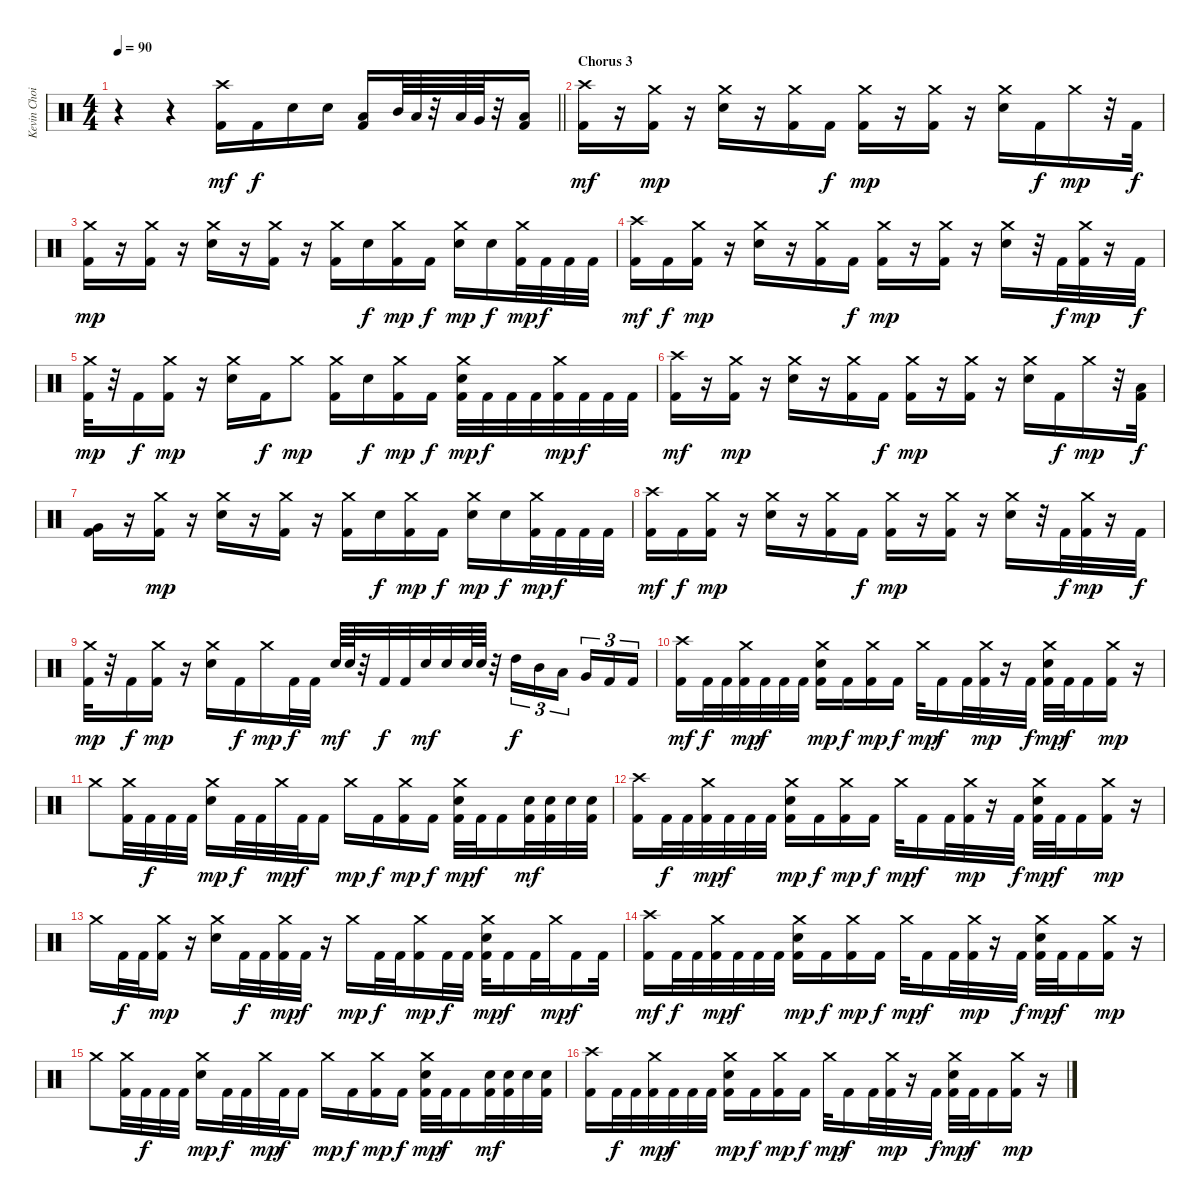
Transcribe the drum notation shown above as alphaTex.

\track ("Kevin Choiral" "Kevin Choi") {instrument percussion}
\staff
\articulation defaults
\ts (4 4)
\tempo 90
\clef neutral
\barLineRight lightlight
\ks c
r.4{dy f} r.4 ("Crash high (hit)" "Kick (hit) 2").16{dy mf} "Kick (hit) 2".16{dy f} "Electric Snare (hit)".16 "Electric Snare (hit)".16 ("Low Tom (hit)" "Kick (hit) 2").16 "Mid Tom (hit)".64 "Low Tom (hit)".64 r.32 "Low Tom (hit)".64 "Very Low Tom (hit)".64 r.32 ("Low Floor Tom (hit)" "Kick (hit) 2").16 |
\section ("" "Chorus 3")
("Crash high (hit)" "Kick (hit) 2").16{dy mf} r.16 ("Crash medium (hit)" "Kick (hit) 2").16{dy mp} r.16 ("Crash medium (hit)" "Electric Snare (hit)").16 r.16 ("Crash medium (hit)" "Kick (hit) 2").16 "Kick (hit) 2".16{dy f} ("Crash medium (hit)" "Kick (hit) 2").16{dy mp} r.16 ("Crash medium (hit)" "Kick (hit) 2").16 r.16 ("Crash medium (hit)" "Electric Snare (hit)").16 "Kick (hit) 2".16{dy f} "Crash medium (hit)".16{dy mp} r.32 "Kick (hit) 2".32{dy f} |
("Crash medium (hit)" "Kick (hit) 2").16{dy mp} r.16 ("Crash medium (hit)" "Kick (hit) 2").16 r.16 ("Crash medium (hit)" "Electric Snare (hit)").16 r.16 ("Crash medium (hit)" "Kick (hit) 2").16 r.16 ("Crash medium (hit)" "Kick (hit) 2").16 "Electric Snare (hit)".16{dy f} ("Crash medium (hit)" "Kick (hit) 2").16{dy mp} "Kick (hit) 2".16{dy f} ("Crash medium (hit)" "Electric Snare (hit)").16{dy mp} "Electric Snare (hit)".16{dy f} ("Crash medium (hit)" "Kick (hit) 2").32{dy mp} "Kick (hit) 2".32{dy f} "Kick (hit) 2".32 "Kick (hit) 2".32 |
("Crash high (hit)" "Kick (hit) 2").16{dy mf} "Kick (hit) 2".16{dy f} ("Crash medium (hit)" "Kick (hit) 2").16{dy mp} r.16 ("Crash medium (hit)" "Electric Snare (hit)").16 r.16 ("Crash medium (hit)" "Kick (hit) 2").16 "Kick (hit) 2".16{dy f} ("Crash medium (hit)" "Kick (hit) 2").16{dy mp} r.16 ("Crash medium (hit)" "Kick (hit) 2").16 r.16 ("Crash medium (hit)" "Electric Snare (hit)").16 r.32 "Kick (hit) 2".32{dy f} ("Crash medium (hit)" "Kick (hit) 2").32{dy mp} r.16 "Kick (hit) 2".32{dy f} |
("Crash medium (hit)" "Kick (hit) 2").32{dy mp} r.32 "Kick (hit) 2".16{dy f} ("Crash medium (hit)" "Kick (hit) 2").16{dy mp} r.16 ("Crash medium (hit)" "Electric Snare (hit)").16 "Kick (hit) 2".16{dy f} "Crash medium (hit)".8{dy mp} ("Crash medium (hit)" "Kick (hit) 2").16 "Electric Snare (hit)".16{dy f} ("Crash medium (hit)" "Kick (hit) 2").16{dy mp} "Kick (hit) 2".16{dy f} ("Crash medium (hit)" "Electric Snare (hit)" "Kick (hit) 2").32{dy mp} "Kick (hit) 2".32{dy f} "Kick (hit) 2".32 "Kick (hit) 2".32 ("Crash medium (hit)" "Kick (hit) 2").32{dy mp} "Kick (hit) 2".32{dy f} "Kick (hit) 2".32 "Kick (hit) 2".32 |
("Crash high (hit)" "Kick (hit) 2").16{dy mf} r.16 ("Crash medium (hit)" "Kick (hit) 2").16{dy mp} r.16 ("Crash medium (hit)" "Electric Snare (hit)").16 r.16 ("Crash medium (hit)" "Kick (hit) 2").16 "Kick (hit) 2".16{dy f} ("Crash medium (hit)" "Kick (hit) 2").16{dy mp} r.16 ("Crash medium (hit)" "Kick (hit) 2").16 r.16 ("Crash medium (hit)" "Electric Snare (hit)").16 "Kick (hit) 2".16{dy f} "Crash medium (hit)".16{dy mp} r.32 ("Low Tom (hit)" "Kick (hit) 2").32{dy f} |
("Very Low Tom (hit)" "Kick (hit) 2").16 r.16 ("Crash medium (hit)" "Kick (hit) 2").16{dy mp} r.16 ("Crash medium (hit)" "Electric Snare (hit)").16 r.16 ("Crash medium (hit)" "Kick (hit) 2").16 r.16 ("Crash medium (hit)" "Kick (hit) 2").16 "Electric Snare (hit)".16{dy f} ("Crash medium (hit)" "Kick (hit) 2").16{dy mp} "Kick (hit) 2".16{dy f} ("Crash medium (hit)" "Electric Snare (hit)").16{dy mp} "Electric Snare (hit)".16{dy f} ("Crash medium (hit)" "Kick (hit) 2").32{dy mp} "Kick (hit) 2".32{dy f} "Kick (hit) 2".32 "Kick (hit) 2".32 |
("Crash high (hit)" "Kick (hit) 2").16{dy mf} "Kick (hit) 2".16{dy f} ("Crash medium (hit)" "Kick (hit) 2").16{dy mp} r.16 ("Crash medium (hit)" "Electric Snare (hit)").16 r.16 ("Crash medium (hit)" "Kick (hit) 2").16 "Kick (hit) 2".16{dy f} ("Crash medium (hit)" "Kick (hit) 2").16{dy mp} r.16 ("Crash medium (hit)" "Kick (hit) 2").16 r.16 ("Crash medium (hit)" "Electric Snare (hit)").16 r.32 "Kick (hit) 2".32{dy f} ("Crash medium (hit)" "Kick (hit) 2").32{dy mp} r.16 "Kick (hit) 2".32{dy f} |
("Crash medium (hit)" "Kick (hit) 2").32{dy mp} r.32 "Kick (hit) 2".16{dy f} ("Crash medium (hit)" "Kick (hit) 2").16{dy mp} r.16 ("Crash medium (hit)" "Electric Snare (hit)").16 "Kick (hit) 2".16{dy f} "Crash medium (hit)".16{dy mp} "Kick (hit) 2".32{dy f} "Kick (hit) 2".32 "Electric Snare (hit)".64{dy mf} "Electric Snare (hit)".64 r.32 "Kick (hit) 2".32{dy f} "Kick (hit) 2".32 "Electric Snare (hit)".32{dy mf} "Electric Snare (hit)".32 "Electric Snare (hit)".64 "Electric Snare (hit)".64 r.32 "High Tom (hit)".16{tu (3 2) dy f} "Mid Tom (hit)".16{tu (3 2)} "Low Tom (hit)".16{tu (3 2) beam splitsecondary} "Very Low Tom (hit)".16{tu (3 2)} "Kick (hit) 2".16{tu (3 2)} "Kick (hit) 2".16{tu (3 2)} |
("Crash high (hit)" "Kick (hit) 2").16{dy mf} "Kick (hit) 2".32{dy f} "Kick (hit) 2".32 ("Crash medium (hit)" "Kick (hit) 2").32{dy mp} "Kick (hit) 2".32{dy f} "Kick (hit) 2".32 "Kick (hit) 2".32 ("Crash medium (hit)" "Electric Snare (hit)" "Kick (hit) 2").16{dy mp} "Kick (hit) 2".16{dy f} ("Crash medium (hit)" "Kick (hit) 2").16{dy mp} "Kick (hit) 2".16{dy f} "Crash medium (hit)".32{dy mp} "Kick (hit) 2".16{dy f} "Kick (hit) 2".32 ("Crash medium (hit)" "Kick (hit) 2").32{dy mp} r.16 "Kick (hit) 2".32{dy f} ("Crash medium (hit)" "Electric Snare (hit)" "Kick (hit) 2").32{dy mp} "Kick (hit) 2".32{dy f} "Kick (hit) 2".16 ("Crash medium (hit)" "Kick (hit) 2").16{dy mp} r.16 |
"Crash medium (hit)".8 ("Crash medium (hit)" "Kick (hit) 2").32 "Kick (hit) 2".32{dy f} "Kick (hit) 2".32 "Kick (hit) 2".32 ("Crash medium (hit)" "Electric Snare (hit)").16{dy mp} "Kick (hit) 2".32{dy f} "Kick (hit) 2".32 "Crash medium (hit)".32{dy mp} "Kick (hit) 2".32{dy f} "Kick (hit) 2".16 "Crash medium (hit)".16{dy mp} "Kick (hit) 2".16{dy f} ("Crash medium (hit)" "Kick (hit) 2").16{dy mp} "Kick (hit) 2".16{dy f} ("Crash medium (hit)" "Electric Snare (hit)" "Kick (hit) 2").32{dy mp} "Kick (hit) 2".32{dy f} "Kick (hit) 2".16 ("Electric Snare (hit)" "Kick (hit) 2").32{dy mf} ("Electric Snare (hit)" "Kick (hit) 2").32 "Electric Snare (hit)".32 ("Electric Snare (hit)" "Kick (hit) 2").32 |
("Crash high (hit)" "Kick (hit) 2").16 "Kick (hit) 2".32{dy f} "Kick (hit) 2".32 ("Crash medium (hit)" "Kick (hit) 2").32{dy mp} "Kick (hit) 2".32{dy f} "Kick (hit) 2".32 "Kick (hit) 2".32 ("Crash medium (hit)" "Electric Snare (hit)" "Kick (hit) 2").16{dy mp} "Kick (hit) 2".16{dy f} ("Crash medium (hit)" "Kick (hit) 2").16{dy mp} "Kick (hit) 2".16{dy f} "Crash medium (hit)".32{dy mp} "Kick (hit) 2".16{dy f} "Kick (hit) 2".32 ("Crash medium (hit)" "Kick (hit) 2").32{dy mp} r.16 "Kick (hit) 2".32{dy f} ("Crash medium (hit)" "Electric Snare (hit)" "Kick (hit) 2").32{dy mp} "Kick (hit) 2".32{dy f} "Kick (hit) 2".16 ("Crash medium (hit)" "Kick (hit) 2").16{dy mp} r.16 |
"Crash medium (hit)".16 "Kick (hit) 2".32{dy f} "Kick (hit) 2".32 ("Crash medium (hit)" "Kick (hit) 2").16{dy mp} r.16 ("Crash medium (hit)" "Electric Snare (hit)").16 "Kick (hit) 2".32{dy f} "Kick (hit) 2".32 ("Crash medium (hit)" "Kick (hit) 2").32{dy mp} "Kick (hit) 2".32{dy f} r.16 "Crash medium (hit)".16{dy mp} "Kick (hit) 2".32{dy f} "Kick (hit) 2".32 ("Crash medium (hit)" "Kick (hit) 2").16{dy mp} "Kick (hit) 2".32{dy f} "Kick (hit) 2".32 ("Crash medium (hit)" "Electric Snare (hit)" "Kick (hit) 2").32{dy mp} "Kick (hit) 2".16{dy f} "Kick (hit) 2".32 "Crash medium (hit)".32{dy mp} "Kick (hit) 2".16{dy f} "Kick (hit) 2".32 |
("Crash high (hit)" "Kick (hit) 2").16{dy mf} "Kick (hit) 2".32{dy f} "Kick (hit) 2".32 ("Crash medium (hit)" "Kick (hit) 2").32{dy mp} "Kick (hit) 2".32{dy f} "Kick (hit) 2".32 "Kick (hit) 2".32 ("Crash medium (hit)" "Electric Snare (hit)" "Kick (hit) 2").16{dy mp} "Kick (hit) 2".16{dy f} ("Crash medium (hit)" "Kick (hit) 2").16{dy mp} "Kick (hit) 2".16{dy f} "Crash medium (hit)".32{dy mp} "Kick (hit) 2".16{dy f} "Kick (hit) 2".32 ("Crash medium (hit)" "Kick (hit) 2").32{dy mp} r.16 "Kick (hit) 2".32{dy f} ("Crash medium (hit)" "Electric Snare (hit)" "Kick (hit) 2").32{dy mp} "Kick (hit) 2".32{dy f} "Kick (hit) 2".16 ("Crash medium (hit)" "Kick (hit) 2").16{dy mp} r.16 |
"Crash medium (hit)".8 ("Crash medium (hit)" "Kick (hit) 2").32 "Kick (hit) 2".32{dy f} "Kick (hit) 2".32 "Kick (hit) 2".32 ("Crash medium (hit)" "Electric Snare (hit)").16{dy mp} "Kick (hit) 2".32{dy f} "Kick (hit) 2".32 "Crash medium (hit)".32{dy mp} "Kick (hit) 2".32{dy f} "Kick (hit) 2".16 "Crash medium (hit)".16{dy mp} "Kick (hit) 2".16{dy f} ("Crash medium (hit)" "Kick (hit) 2").16{dy mp} "Kick (hit) 2".16{dy f} ("Crash medium (hit)" "Electric Snare (hit)" "Kick (hit) 2").32{dy mp} "Kick (hit) 2".32{dy f} "Kick (hit) 2".16 ("Electric Snare (hit)" "Kick (hit) 2").32{dy mf} ("Electric Snare (hit)" "Kick (hit) 2").32 "Electric Snare (hit)".32 ("Electric Snare (hit)" "Kick (hit) 2").32 |
("Crash high (hit)" "Kick (hit) 2").16 "Kick (hit) 2".32{dy f} "Kick (hit) 2".32 ("Crash medium (hit)" "Kick (hit) 2").32{dy mp} "Kick (hit) 2".32{dy f} "Kick (hit) 2".32 "Kick (hit) 2".32 ("Crash medium (hit)" "Electric Snare (hit)" "Kick (hit) 2").16{dy mp} "Kick (hit) 2".16{dy f} ("Crash medium (hit)" "Kick (hit) 2").16{dy mp} "Kick (hit) 2".16{dy f} "Crash medium (hit)".32{dy mp} "Kick (hit) 2".16{dy f} "Kick (hit) 2".32 ("Crash medium (hit)" "Kick (hit) 2").32{dy mp} r.16 "Kick (hit) 2".32{dy f} ("Crash medium (hit)" "Electric Snare (hit)" "Kick (hit) 2").32{dy mp} "Kick (hit) 2".32{dy f} "Kick (hit) 2".16 ("Crash medium (hit)" "Kick (hit) 2").16{dy mp} r.16
